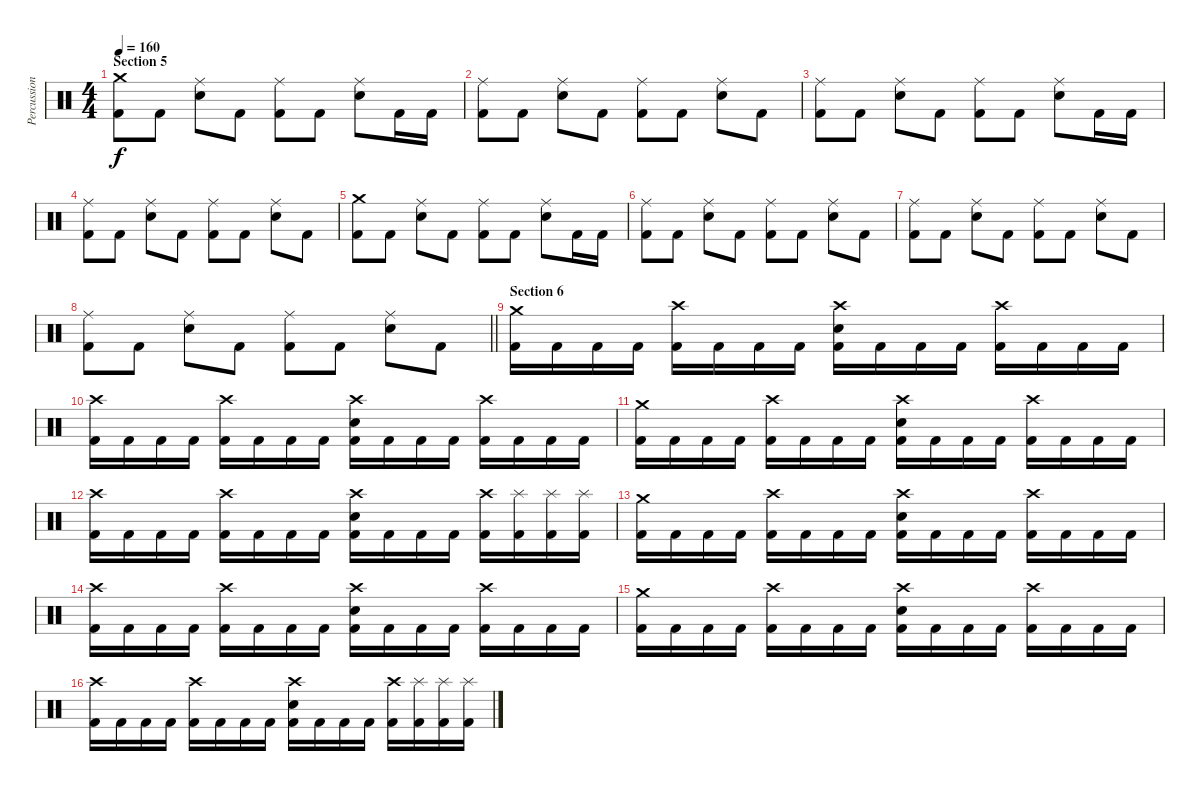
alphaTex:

\track ("Percussion" "Percussion") {instrument percussion}
\staff {score}
\articulation defaults
\ts (4 4)
\section ("" "Section 5")
\tempo 160
\clef neutral
\ks c
("Crash medium (hit)" "Kick (hit) 2").8{dy f} "Kick (hit) 2".8 ("Ride (middle)" "Snare (hit) 2").8 "Kick (hit) 2".8 ("Ride (middle)" "Kick (hit) 2").8 "Kick (hit) 2".8 ("Ride (middle)" "Snare (hit) 2").8 "Kick (hit) 2".16 "Kick (hit) 2".16 |
("Ride (middle)" "Kick (hit) 2").8 "Kick (hit) 2".8 ("Ride (middle)" "Snare (hit) 2").8 "Kick (hit) 2".8 ("Ride (middle)" "Kick (hit) 2").8 "Kick (hit) 2".8 ("Ride (middle)" "Snare (hit) 2").8 "Kick (hit) 2".8 |
("Ride (middle)" "Kick (hit) 2").8 "Kick (hit) 2".8 ("Ride (middle)" "Snare (hit) 2").8 "Kick (hit) 2".8 ("Ride (middle)" "Kick (hit) 2").8 "Kick (hit) 2".8 ("Ride (middle)" "Snare (hit) 2").8 "Kick (hit) 2".16 "Kick (hit) 2".16 |
("Ride (middle)" "Kick (hit) 2").8 "Kick (hit) 2".8 ("Ride (middle)" "Snare (hit) 2").8 "Kick (hit) 2".8 ("Ride (middle)" "Kick (hit) 2").8 "Kick (hit) 2".8 ("Ride (middle)" "Snare (hit) 2").8 "Kick (hit) 2".8 |
("Crash medium (hit)" "Kick (hit) 2").8 "Kick (hit) 2".8 ("Ride (middle)" "Snare (hit) 2").8 "Kick (hit) 2".8 ("Ride (middle)" "Kick (hit) 2").8 "Kick (hit) 2".8 ("Ride (middle)" "Snare (hit) 2").8 "Kick (hit) 2".16 "Kick (hit) 2".16 |
("Ride (middle)" "Kick (hit) 2").8 "Kick (hit) 2".8 ("Ride (middle)" "Snare (hit) 2").8 "Kick (hit) 2".8 ("Ride (middle)" "Kick (hit) 2").8 "Kick (hit) 2".8 ("Ride (middle)" "Snare (hit) 2").8 "Kick (hit) 2".8 |
("Ride (middle)" "Kick (hit) 2").8 "Kick (hit) 2".8 ("Ride (middle)" "Snare (hit) 2").8 "Kick (hit) 2".8 ("Ride (middle)" "Kick (hit) 2").8 "Kick (hit) 2".8 ("Ride (middle)" "Snare (hit) 2").8 "Kick (hit) 2".8 |
\barLineRight lightlight
("Ride (middle)" "Kick (hit) 2").8 "Kick (hit) 2".8 ("Ride (middle)" "Snare (hit) 2").8 "Kick (hit) 2".8 ("Ride (middle)" "Kick (hit) 2").8 "Kick (hit) 2".8 ("Ride (middle)" "Snare (hit) 2").8 "Kick (hit) 2".8 |
\section ("" "Section 6")
("Crash medium (hit)" "Kick (hit) 2").16 "Kick (hit) 2".16 "Kick (hit) 2".16 "Kick (hit) 2".16 ("Crash high (hit)" "Kick (hit) 2").16 "Kick (hit) 2".16 "Kick (hit) 2".16 "Kick (hit) 2".16 ("Crash high (hit)" "Snare (hit) 2" "Kick (hit) 2").16 "Kick (hit) 2".16 "Kick (hit) 2".16 "Kick (hit) 2".16 ("Crash high (hit)" "Kick (hit) 2").16 "Kick (hit) 2".16 "Kick (hit) 2".16 "Kick (hit) 2".16 |
("Crash high (hit)" "Kick (hit) 2").16 "Kick (hit) 2".16 "Kick (hit) 2".16 "Kick (hit) 2".16 ("Crash high (hit)" "Kick (hit) 2").16 "Kick (hit) 2".16 "Kick (hit) 2".16 "Kick (hit) 2".16 ("Crash high (hit)" "Snare (hit) 2" "Kick (hit) 2").16 "Kick (hit) 2".16 "Kick (hit) 2".16 "Kick (hit) 2".16 ("Crash high (hit)" "Kick (hit) 2").16 "Kick (hit) 2".16 "Kick (hit) 2".16 "Kick (hit) 2".16 |
("Crash medium (hit)" "Kick (hit) 2").16 "Kick (hit) 2".16 "Kick (hit) 2".16 "Kick (hit) 2".16 ("Crash high (hit)" "Kick (hit) 2").16 "Kick (hit) 2".16 "Kick (hit) 2".16 "Kick (hit) 2".16 ("Crash high (hit)" "Snare (hit) 2" "Kick (hit) 2").16 "Kick (hit) 2".16 "Kick (hit) 2".16 "Kick (hit) 2".16 ("Crash high (hit)" "Kick (hit) 2").16 "Kick (hit) 2".16 "Kick (hit) 2".16 "Kick (hit) 2".16 |
("Crash high (hit)" "Kick (hit) 2").16 "Kick (hit) 2".16 "Kick (hit) 2".16 "Kick (hit) 2".16 ("Crash high (hit)" "Kick (hit) 2").16 "Kick (hit) 2".16 "Kick (hit) 2".16 "Kick (hit) 2".16 ("Crash high (hit)" "Snare (hit) 2" "Kick (hit) 2").16 "Kick (hit) 2".16 "Kick (hit) 2".16 "Kick (hit) 2".16 ("Crash high (hit)" "Kick (hit) 2").16 ("Splash (hit)" "Kick (hit) 2").16 ("Splash (hit)" "Kick (hit) 2").16 ("Splash (hit)" "Kick (hit) 2").16 |
("Crash medium (hit)" "Kick (hit) 2").16 "Kick (hit) 2".16 "Kick (hit) 2".16 "Kick (hit) 2".16 ("Crash high (hit)" "Kick (hit) 2").16 "Kick (hit) 2".16 "Kick (hit) 2".16 "Kick (hit) 2".16 ("Crash high (hit)" "Snare (hit) 2" "Kick (hit) 2").16 "Kick (hit) 2".16 "Kick (hit) 2".16 "Kick (hit) 2".16 ("Crash high (hit)" "Kick (hit) 2").16 "Kick (hit) 2".16 "Kick (hit) 2".16 "Kick (hit) 2".16 |
("Crash high (hit)" "Kick (hit) 2").16 "Kick (hit) 2".16 "Kick (hit) 2".16 "Kick (hit) 2".16 ("Crash high (hit)" "Kick (hit) 2").16 "Kick (hit) 2".16 "Kick (hit) 2".16 "Kick (hit) 2".16 ("Crash high (hit)" "Snare (hit) 2" "Kick (hit) 2").16 "Kick (hit) 2".16 "Kick (hit) 2".16 "Kick (hit) 2".16 ("Crash high (hit)" "Kick (hit) 2").16 "Kick (hit) 2".16 "Kick (hit) 2".16 "Kick (hit) 2".16 |
("Crash medium (hit)" "Kick (hit) 2").16 "Kick (hit) 2".16 "Kick (hit) 2".16 "Kick (hit) 2".16 ("Crash high (hit)" "Kick (hit) 2").16 "Kick (hit) 2".16 "Kick (hit) 2".16 "Kick (hit) 2".16 ("Crash high (hit)" "Snare (hit) 2" "Kick (hit) 2").16 "Kick (hit) 2".16 "Kick (hit) 2".16 "Kick (hit) 2".16 ("Crash high (hit)" "Kick (hit) 2").16 "Kick (hit) 2".16 "Kick (hit) 2".16 "Kick (hit) 2".16 |
("Crash high (hit)" "Kick (hit) 2").16 "Kick (hit) 2".16 "Kick (hit) 2".16 "Kick (hit) 2".16 ("Crash high (hit)" "Kick (hit) 2").16 "Kick (hit) 2".16 "Kick (hit) 2".16 "Kick (hit) 2".16 ("Crash high (hit)" "Snare (hit) 2" "Kick (hit) 2").16 "Kick (hit) 2".16 "Kick (hit) 2".16 "Kick (hit) 2".16 ("Crash high (hit)" "Kick (hit) 2").16 ("Splash (hit)" "Kick (hit) 2").16 ("Splash (hit)" "Kick (hit) 2").16 ("Splash (hit)" "Kick (hit) 2").16
